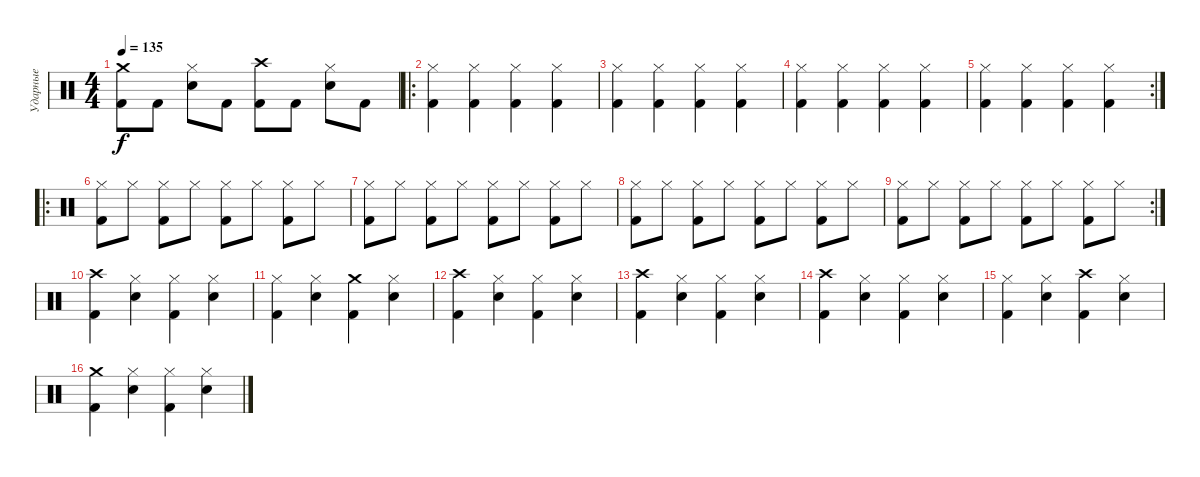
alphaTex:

\track ("Ударные" "Ударные") {solo instrument percussion}
\staff {score}
\articulation defaults
\ts (4 4)
\tempo 135
\clef neutral
\ks c
("Kick (hit) 2" "Crash medium (hit)").8{dy f} "Kick (hit) 2".8 ("Snare (hit) 2" "Hi-Hat (closed)").8 "Kick (hit) 2".8 ("Kick (hit) 2" "Crash high (hit)").8 "Kick (hit) 2".8 ("Snare (hit) 2" "Hi-Hat (closed)").8 "Kick (hit) 2".8 |
\ro
("Kick (hit) 2" "Hi-Hat (closed)").4 ("Kick (hit) 2" "Hi-Hat (closed)").4 ("Kick (hit) 2" "Hi-Hat (closed)").4 ("Kick (hit) 2" "Hi-Hat (closed)").4 |
("Kick (hit) 2" "Hi-Hat (closed)").4 ("Kick (hit) 2" "Hi-Hat (closed)").4 ("Kick (hit) 2" "Hi-Hat (closed)").4 ("Kick (hit) 2" "Hi-Hat (closed)").4 |
("Kick (hit) 2" "Hi-Hat (closed)").4 ("Kick (hit) 2" "Hi-Hat (closed)").4 ("Kick (hit) 2" "Hi-Hat (closed)").4 ("Kick (hit) 2" "Hi-Hat (closed)").4 |
\rc 2
("Kick (hit) 2" "Hi-Hat (closed)").4 ("Kick (hit) 2" "Hi-Hat (closed)").4 ("Kick (hit) 2" "Hi-Hat (closed)").4 ("Kick (hit) 2" "Hi-Hat (closed)").4 |
\ro
("Kick (hit) 2" "Hi-Hat (closed)").8 "Hi-Hat (closed)".8 ("Kick (hit) 2" "Hi-Hat (closed)").8 "Hi-Hat (closed)".8 ("Kick (hit) 2" "Hi-Hat (closed)").8 "Hi-Hat (closed)".8 ("Kick (hit) 2" "Hi-Hat (closed)").8 "Hi-Hat (closed)".8 |
("Kick (hit) 2" "Hi-Hat (closed)").8 "Hi-Hat (closed)".8 ("Kick (hit) 2" "Hi-Hat (closed)").8 "Hi-Hat (closed)".8 ("Kick (hit) 2" "Hi-Hat (closed)").8 "Hi-Hat (closed)".8 ("Kick (hit) 2" "Hi-Hat (closed)").8 "Hi-Hat (closed)".8 |
("Kick (hit) 2" "Hi-Hat (closed)").8 "Hi-Hat (closed)".8 ("Kick (hit) 2" "Hi-Hat (closed)").8 "Hi-Hat (closed)".8 ("Kick (hit) 2" "Hi-Hat (closed)").8 "Hi-Hat (closed)".8 ("Kick (hit) 2" "Hi-Hat (closed)").8 "Hi-Hat (closed)".8 |
\rc 2
("Kick (hit) 2" "Hi-Hat (closed)").8 "Hi-Hat (closed)".8 ("Kick (hit) 2" "Hi-Hat (closed)").8 "Hi-Hat (closed)".8 ("Kick (hit) 2" "Hi-Hat (closed)").8 "Hi-Hat (closed)".8 ("Kick (hit) 2" "Hi-Hat (closed)").8 "Hi-Hat (closed)".8 |
("Kick (hit) 2" "Crash high (hit)").4 ("Snare (hit) 2" "Hi-Hat (closed)").4 ("Kick (hit) 2" "Hi-Hat (closed)").4 ("Snare (hit) 2" "Hi-Hat (closed)").4 |
("Kick (hit) 2" "Hi-Hat (closed)").4 ("Snare (hit) 2" "Hi-Hat (closed)").4 ("Kick (hit) 2" "Crash medium (hit)").4 ("Snare (hit) 2" "Hi-Hat (closed)").4 |
("Kick (hit) 2" "Crash high (hit)").4 ("Snare (hit) 2" "Hi-Hat (closed)").4 ("Kick (hit) 2" "Hi-Hat (closed)").4 ("Snare (hit) 2" "Hi-Hat (closed)").4 |
("Kick (hit) 2" "Crash high (hit)").4 ("Snare (hit) 2" "Hi-Hat (closed)").4 ("Kick (hit) 2" "Hi-Hat (closed)").4 ("Snare (hit) 2" "Hi-Hat (closed)").4 |
("Kick (hit) 2" "Crash high (hit)").4 ("Snare (hit) 2" "Hi-Hat (closed)").4 ("Kick (hit) 2" "Hi-Hat (closed)").4 ("Snare (hit) 2" "Hi-Hat (closed)").4 |
("Kick (hit) 2" "Hi-Hat (closed)").4 ("Snare (hit) 2" "Hi-Hat (closed)").4 ("Kick (hit) 2" "Crash high (hit)").4 ("Snare (hit) 2" "Hi-Hat (closed)").4 |
("Kick (hit) 2" "Crash medium (hit)").4 ("Snare (hit) 2" "Hi-Hat (closed)").4 ("Kick (hit) 2" "Hi-Hat (closed)").4 ("Snare (hit) 2" "Hi-Hat (closed)").4
